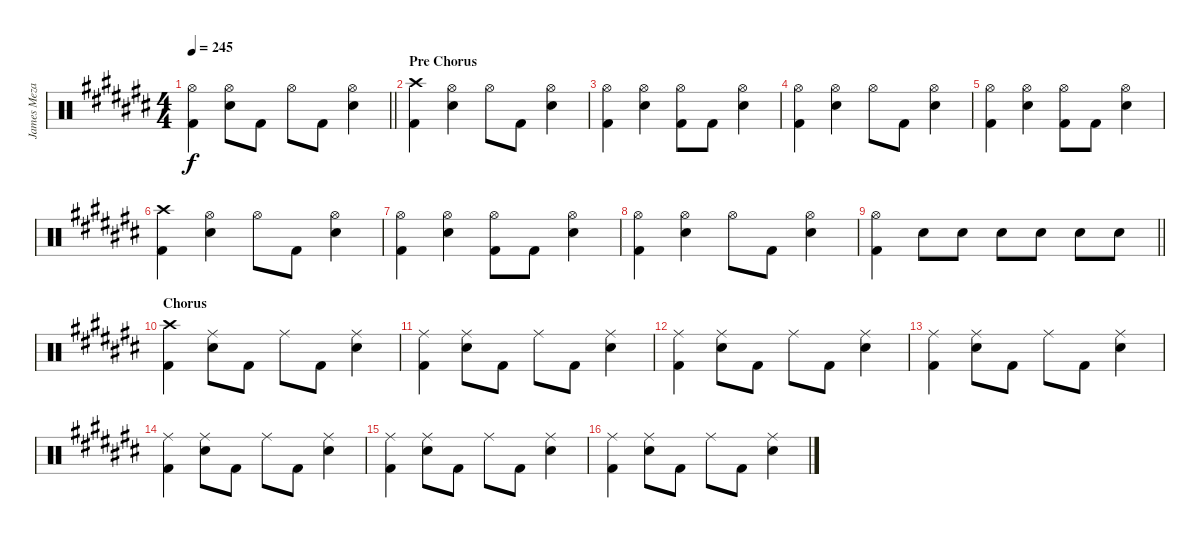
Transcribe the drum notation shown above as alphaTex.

\track ("James Meza" "James Meza") {instrument percussion}
\staff {score}
\articulation defaults
\ts (4 4)
\tempo 245
\clef neutral
\barLineRight lightlight
\ks c#
("Hi-Hat (open)" "Kick (hit) 2").4{dy f} ("Hi-Hat (open)" "Snare (hit) 2").8 "Kick (hit) 2".8 "Hi-Hat (open)".8 "Kick (hit) 2".8 ("Hi-Hat (open)" "Snare (hit) 2").4 |
\section ("" "Pre Chorus")
("Crash high (hit)" "Kick (hit) 2").4 ("Hi-Hat (open)" "Snare (hit) 2").4 "Hi-Hat (open)".8 "Kick (hit) 2".8 ("Hi-Hat (open)" "Snare (hit) 2").4 |
("Hi-Hat (open)" "Kick (hit) 2").4 ("Hi-Hat (open)" "Snare (hit) 2").4 ("Hi-Hat (open)" "Kick (hit) 2").8 "Kick (hit) 2".8 ("Hi-Hat (open)" "Snare (hit) 2").4 |
("Hi-Hat (open)" "Kick (hit) 2").4 ("Hi-Hat (open)" "Snare (hit) 2").4 "Hi-Hat (open)".8 "Kick (hit) 2".8 ("Hi-Hat (open)" "Snare (hit) 2").4 |
("Hi-Hat (open)" "Kick (hit) 2").4 ("Hi-Hat (open)" "Snare (hit) 2").4 ("Hi-Hat (open)" "Kick (hit) 2").8 "Kick (hit) 2".8 ("Hi-Hat (open)" "Snare (hit) 2").4 |
("Crash high (hit)" "Kick (hit) 2").4 ("Hi-Hat (open)" "Snare (hit) 2").4 "Hi-Hat (open)".8 "Kick (hit) 2".8 ("Hi-Hat (open)" "Snare (hit) 2").4 |
("Hi-Hat (open)" "Kick (hit) 2").4 ("Hi-Hat (open)" "Snare (hit) 2").4 ("Hi-Hat (open)" "Kick (hit) 2").8 "Kick (hit) 2".8 ("Hi-Hat (open)" "Snare (hit) 2").4 |
("Hi-Hat (open)" "Kick (hit) 2").4 ("Hi-Hat (open)" "Snare (hit) 2").4 "Hi-Hat (open)".8 "Kick (hit) 2".8 ("Hi-Hat (open)" "Snare (hit) 2").4 |
\barLineRight lightlight
("Hi-Hat (open)" "Kick (hit) 2").4 "Snare (hit) 2".8 "Snare (hit) 2".8 "Snare (hit) 2".8 "Snare (hit) 2".8 "Snare (hit) 2".8 "Snare (hit) 2".8 |
\section ("" "Chorus")
("Crash high (hit)" "Kick (hit) 2").4 ("Ride (middle)" "Snare (hit) 2").8 "Kick (hit) 2".8 "Ride (middle)".8 "Kick (hit) 2".8 ("Ride (middle)" "Snare (hit) 2").4 |
("Ride (middle)" "Kick (hit) 2").4 ("Ride (middle)" "Snare (hit) 2").8 "Kick (hit) 2".8 "Ride (middle)".8 "Kick (hit) 2".8 ("Ride (middle)" "Snare (hit) 2").4 |
("Ride (middle)" "Kick (hit) 2").4 ("Ride (middle)" "Snare (hit) 2").8 "Kick (hit) 2".8 "Ride (middle)".8 "Kick (hit) 2".8 ("Ride (middle)" "Snare (hit) 2").4 |
("Ride (middle)" "Kick (hit) 2").4 ("Ride (middle)" "Snare (hit) 2").8 "Kick (hit) 2".8 "Ride (middle)".8 "Kick (hit) 2".8 ("Ride (middle)" "Snare (hit) 2").4 |
("Ride (middle)" "Kick (hit) 2").4 ("Ride (middle)" "Snare (hit) 2").8 "Kick (hit) 2".8 "Ride (middle)".8 "Kick (hit) 2".8 ("Ride (middle)" "Snare (hit) 2").4 |
("Ride (middle)" "Kick (hit) 2").4 ("Ride (middle)" "Snare (hit) 2").8 "Kick (hit) 2".8 "Ride (middle)".8 "Kick (hit) 2".8 ("Ride (middle)" "Snare (hit) 2").4 |
("Ride (middle)" "Kick (hit) 2").4 ("Ride (middle)" "Snare (hit) 2").8 "Kick (hit) 2".8 "Ride (middle)".8 "Kick (hit) 2".8 ("Ride (middle)" "Snare (hit) 2").4
